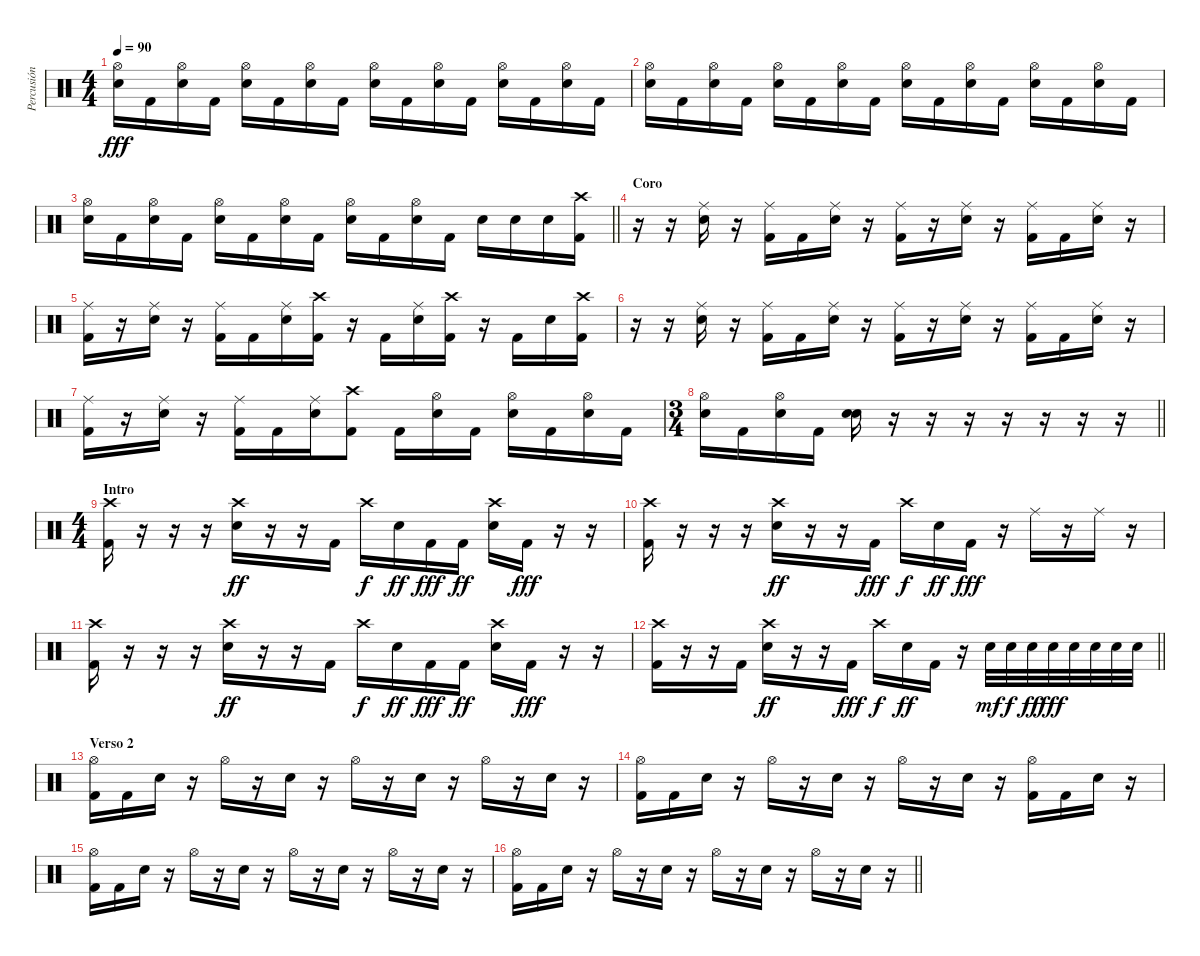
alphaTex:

\track ("Percusión" "Percusión") {instrument percussion}
\staff {score}
\articulation defaults
\ts (4 4)
\tempo 90
\clef neutral
\ks c
("Hi-Hat (open)" "Electric Snare (hit)").16{dy fff} "Kick (hit) 2".16 ("Hi-Hat (open)" "Electric Snare (hit)").16 "Kick (hit) 2".16 ("Hi-Hat (open)" "Electric Snare (hit)").16 "Kick (hit) 2".16 ("Hi-Hat (open)" "Electric Snare (hit)").16 "Kick (hit) 2".16 ("Hi-Hat (open)" "Electric Snare (hit)").16 "Kick (hit) 2".16 ("Hi-Hat (open)" "Electric Snare (hit)").16 "Kick (hit) 2".16 ("Hi-Hat (open)" "Electric Snare (hit)").16 "Kick (hit) 2".16 ("Hi-Hat (open)" "Electric Snare (hit)").16 "Kick (hit) 2".16 |
("Hi-Hat (open)" "Electric Snare (hit)").16 "Kick (hit) 2".16 ("Hi-Hat (open)" "Electric Snare (hit)").16 "Kick (hit) 2".16 ("Hi-Hat (open)" "Electric Snare (hit)").16 "Kick (hit) 2".16 ("Hi-Hat (open)" "Electric Snare (hit)").16 "Kick (hit) 2".16 ("Hi-Hat (open)" "Electric Snare (hit)").16 "Kick (hit) 2".16 ("Hi-Hat (open)" "Electric Snare (hit)").16 "Kick (hit) 2".16 ("Hi-Hat (open)" "Electric Snare (hit)").16 "Kick (hit) 2".16 ("Hi-Hat (open)" "Electric Snare (hit)").16 "Kick (hit) 2".16 |
\barLineRight lightlight
("Hi-Hat (open)" "Electric Snare (hit)").16 "Kick (hit) 2".16 ("Hi-Hat (open)" "Electric Snare (hit)").16 "Kick (hit) 2".16 ("Hi-Hat (open)" "Electric Snare (hit)").16 "Kick (hit) 2".16 ("Hi-Hat (open)" "Electric Snare (hit)").16 "Kick (hit) 2".16 ("Hi-Hat (open)" "Electric Snare (hit)").16 "Kick (hit) 2".16 ("Hi-Hat (open)" "Electric Snare (hit)").16 "Kick (hit) 2".16 "Electric Snare (hit)".16 "Electric Snare (hit)".16 "Electric Snare (hit)".16 ("Crash high (hit)" "Kick (hit) 2").16 |
\section ("" "Coro")
r.16 r.16 ("Ride (middle)" "Electric Snare (hit)").16 r.16 ("Ride (middle)" "Kick (hit) 2").16 "Kick (hit) 2".16 ("Ride (middle)" "Electric Snare (hit)").16 r.16 ("Ride (middle)" "Kick (hit) 2").16 r.16 ("Ride (middle)" "Electric Snare (hit)").16 r.16 ("Ride (middle)" "Kick (hit) 2").16 "Kick (hit) 2".16 ("Ride (middle)" "Electric Snare (hit)").16 r.16 |
("Ride (middle)" "Kick (hit) 2").16 r.16 ("Ride (middle)" "Electric Snare (hit)").16 r.16 ("Ride (middle)" "Kick (hit) 2").16 "Kick (hit) 2".16 ("Ride (middle)" "Electric Snare (hit)").16 ("Crash high (hit)" "Kick (hit) 2").16 r.16 "Kick (hit) 2".16 ("Ride (middle)" "Electric Snare (hit)").16 ("Crash high (hit)" "Kick (hit) 2").16 r.16 "Kick (hit) 2".16 "Electric Snare (hit)".16 ("Crash high (hit)" "Kick (hit) 2").16 |
r.16 r.16 ("Ride (middle)" "Electric Snare (hit)").16 r.16 ("Ride (middle)" "Kick (hit) 2").16 "Kick (hit) 2".16 ("Ride (middle)" "Electric Snare (hit)").16 r.16 ("Ride (middle)" "Kick (hit) 2").16 r.16 ("Ride (middle)" "Electric Snare (hit)").16 r.16 ("Ride (middle)" "Kick (hit) 2").16 "Kick (hit) 2".16 ("Ride (middle)" "Electric Snare (hit)").16 r.16 |
("Ride (middle)" "Kick (hit) 2").16 r.16 ("Ride (middle)" "Electric Snare (hit)").16 r.16 ("Ride (middle)" "Kick (hit) 2").16 "Kick (hit) 2".16 ("Ride (middle)" "Electric Snare (hit)").16 ("Crash high (hit)" "Kick (hit) 2").8 "Kick (hit) 2".16 ("Hi-Hat (open)" "Electric Snare (hit)").16 "Kick (hit) 2".16 ("Hi-Hat (open)" "Electric Snare (hit)").16 "Kick (hit) 2".16 ("Hi-Hat (open)" "Electric Snare (hit)").16 "Kick (hit) 2".16 |
\ts (3 4)
\barLineRight lightlight
("Hi-Hat (open)" "Electric Snare (hit)").16 "Kick (hit) 2".16 ("Hi-Hat (open)" "Electric Snare (hit)").16 "Kick (hit) 2".16 ("Electric Snare (hit)" "Electric Snare (hit)").16 r.16 r.16 r.16 r.16 r.16 r.16 r.16 |
\ts (4 4)
\section ("" "Intro")
("Crash high (hit)" "Kick (hit) 2").16 r.16 r.16 r.16 ("Crash high (hit)" "Electric Snare (hit)").16{dy ff} r.16 r.16 "Kick (hit) 2".16 "Crash high (hit)".16{dy f} "Electric Snare (hit)".16{dy ff} "Kick (hit) 2".16{dy fff} "Kick (hit) 2".16{dy ff} ("Crash high (hit)" "Electric Snare (hit)").16 "Kick (hit) 2".16{dy fff} r.16 r.16 |
("Crash high (hit)" "Kick (hit) 2").16 r.16 r.16 r.16 ("Crash high (hit)" "Electric Snare (hit)").16{dy ff} r.16 r.16 "Kick (hit) 2".16{dy fff} "Crash high (hit)".16{dy f} "Electric Snare (hit)".16{dy ff} "Kick (hit) 2".16{dy fff} r.16 "Ride (middle)".16 r.16 "Ride (middle)".16 r.16 |
("Crash high (hit)" "Kick (hit) 2").16 r.16 r.16 r.16 ("Crash high (hit)" "Electric Snare (hit)").16{dy ff} r.16 r.16 "Kick (hit) 2".16 "Crash high (hit)".16{dy f} "Electric Snare (hit)".16{dy ff} "Kick (hit) 2".16{dy fff} "Kick (hit) 2".16{dy ff} ("Crash high (hit)" "Electric Snare (hit)").16 "Kick (hit) 2".16{dy fff} r.16 r.16 |
\barLineRight lightlight
("Crash high (hit)" "Kick (hit) 2").16 r.16 r.16 "Kick (hit) 2".16 ("Crash high (hit)" "Electric Snare (hit)").16{dy ff} r.16 r.16 "Kick (hit) 2".16{dy fff} "Crash high (hit)".16{dy f} "Electric Snare (hit)".16{dy ff} "Kick (hit) 2".16 r.16 "Electric Snare (hit)".32{dy mf} "Electric Snare (hit)".32{dy f} "Electric Snare (hit)".32{dy ff} "Electric Snare (hit)".32{dy fff} "Electric Snare (hit)".32 "Electric Snare (hit)".32 "Electric Snare (hit)".32 "Electric Snare (hit)".32 |
\section ("" "Verso 2")
("Hi-Hat (open)" "Kick (hit) 2").16 "Kick (hit) 2".16 "Electric Snare (hit)".16 r.16 "Hi-Hat (open)".16 r.16 "Electric Snare (hit)".16 r.16 "Hi-Hat (open)".16 r.16 "Electric Snare (hit)".16 r.16 "Hi-Hat (open)".16 r.16 "Electric Snare (hit)".16 r.16 |
("Hi-Hat (open)" "Kick (hit) 2").16 "Kick (hit) 2".16 "Electric Snare (hit)".16 r.16 "Hi-Hat (open)".16 r.16 "Electric Snare (hit)".16 r.16 "Hi-Hat (open)".16 r.16 "Electric Snare (hit)".16 r.16 ("Hi-Hat (open)" "Kick (hit) 2").16 "Kick (hit) 2".16 "Electric Snare (hit)".16 r.16 |
("Hi-Hat (open)" "Kick (hit) 2").16 "Kick (hit) 2".16 "Electric Snare (hit)".16 r.16 "Hi-Hat (open)".16 r.16 "Electric Snare (hit)".16 r.16 "Hi-Hat (open)".16 r.16 "Electric Snare (hit)".16 r.16 "Hi-Hat (open)".16 r.16 "Electric Snare (hit)".16 r.16 |
\barLineRight lightlight
("Hi-Hat (open)" "Kick (hit) 2").16 "Kick (hit) 2".16 "Electric Snare (hit)".16 r.16 "Hi-Hat (open)".16 r.16 "Electric Snare (hit)".16 r.16 "Hi-Hat (open)".16 r.16 "Electric Snare (hit)".16 r.16 "Hi-Hat (open)".16 r.16 "Electric Snare (hit)".16 r.16
